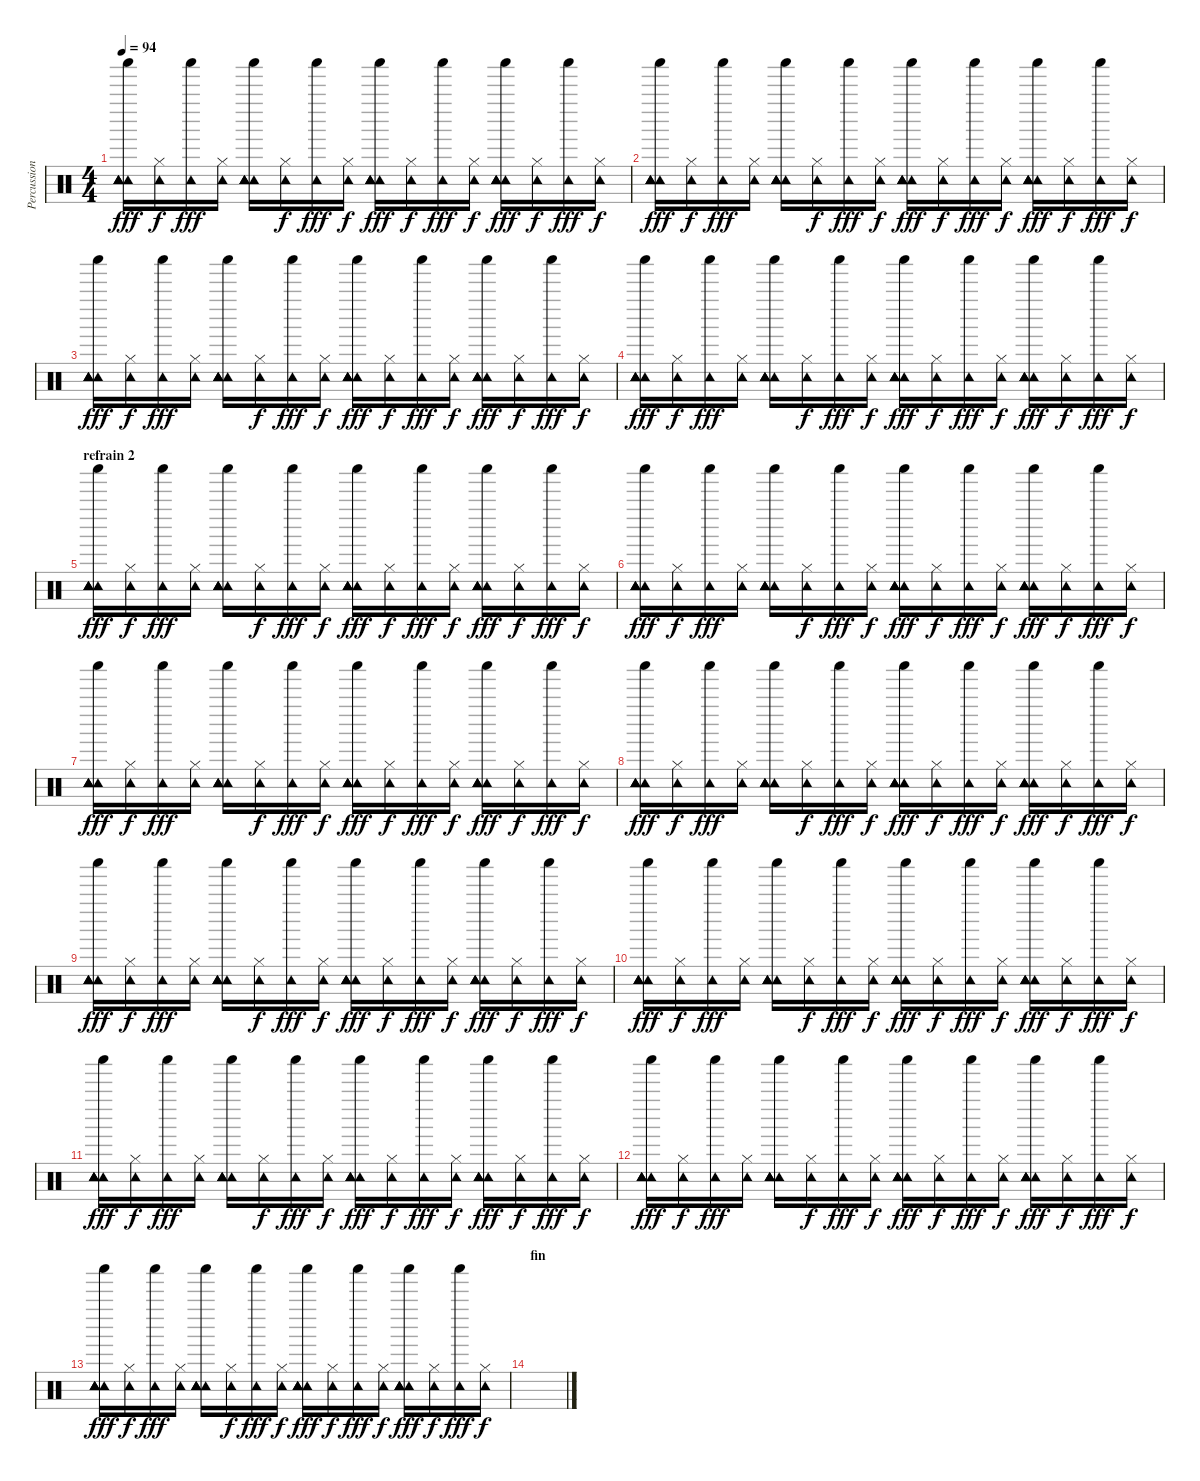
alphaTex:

\track ("Percussions" "Percussion") {instrument percussion}
\staff {score}
\articulation defaults
\ts (4 4)
\tempo 94
\clef neutral
\ks c
("Shaker (hit)" "Tambourine (hit)" "Tambourine (hit)" "Tambourine (hit)" "Tambourine (hit)" "Tambourine (hit)").16{dy fff} ("Hi-Hat (closed)" "Tambourine (hit)").16{dy f} ("Shaker (hit)" "Tambourine (hit)").16{dy fff} ("Hi-Hat (closed)" "Tambourine (hit)").16 ("Shaker (hit)" "Tambourine (hit)" "Tambourine (hit)" "Tambourine (hit)" "Tambourine (hit)" "Tambourine (hit)").16 ("Hi-Hat (closed)" "Tambourine (hit)").16{dy f} ("Shaker (hit)" "Tambourine (hit)").16{dy fff} ("Hi-Hat (closed)" "Tambourine (hit)").16{dy f} ("Shaker (hit)" "Tambourine (hit)" "Tambourine (hit)" "Tambourine (hit)" "Tambourine (hit)" "Tambourine (hit)").16{dy fff} ("Hi-Hat (closed)" "Tambourine (hit)").16{dy f} ("Shaker (hit)" "Tambourine (hit)").16{dy fff} ("Hi-Hat (closed)" "Tambourine (hit)").16{dy f} ("Shaker (hit)" "Tambourine (hit)" "Tambourine (hit)" "Tambourine (hit)" "Tambourine (hit)" "Tambourine (hit)").16{dy fff} ("Hi-Hat (closed)" "Tambourine (hit)").16{dy f} ("Shaker (hit)" "Tambourine (hit)").16{dy fff} ("Hi-Hat (closed)" "Tambourine (hit)").16{dy f} |
("Shaker (hit)" "Tambourine (hit)" "Tambourine (hit)" "Tambourine (hit)" "Tambourine (hit)" "Tambourine (hit)").16{dy fff} ("Hi-Hat (closed)" "Tambourine (hit)").16{dy f} ("Shaker (hit)" "Tambourine (hit)").16{dy fff} ("Hi-Hat (closed)" "Tambourine (hit)").16 ("Shaker (hit)" "Tambourine (hit)" "Tambourine (hit)" "Tambourine (hit)" "Tambourine (hit)" "Tambourine (hit)").16 ("Hi-Hat (closed)" "Tambourine (hit)").16{dy f} ("Shaker (hit)" "Tambourine (hit)").16{dy fff} ("Hi-Hat (closed)" "Tambourine (hit)").16{dy f} ("Shaker (hit)" "Tambourine (hit)" "Tambourine (hit)" "Tambourine (hit)" "Tambourine (hit)" "Tambourine (hit)").16{dy fff} ("Hi-Hat (closed)" "Tambourine (hit)").16{dy f} ("Shaker (hit)" "Tambourine (hit)").16{dy fff} ("Hi-Hat (closed)" "Tambourine (hit)").16{dy f} ("Shaker (hit)" "Tambourine (hit)" "Tambourine (hit)" "Tambourine (hit)" "Tambourine (hit)" "Tambourine (hit)").16{dy fff} ("Hi-Hat (closed)" "Tambourine (hit)").16{dy f} ("Shaker (hit)" "Tambourine (hit)").16{dy fff} ("Hi-Hat (closed)" "Tambourine (hit)").16{dy f} |
("Shaker (hit)" "Tambourine (hit)" "Tambourine (hit)" "Tambourine (hit)" "Tambourine (hit)" "Tambourine (hit)").16{dy fff} ("Hi-Hat (closed)" "Tambourine (hit)").16{dy f} ("Shaker (hit)" "Tambourine (hit)").16{dy fff} ("Hi-Hat (closed)" "Tambourine (hit)").16 ("Shaker (hit)" "Tambourine (hit)" "Tambourine (hit)" "Tambourine (hit)" "Tambourine (hit)" "Tambourine (hit)").16 ("Hi-Hat (closed)" "Tambourine (hit)").16{dy f} ("Shaker (hit)" "Tambourine (hit)").16{dy fff} ("Hi-Hat (closed)" "Tambourine (hit)").16{dy f} ("Shaker (hit)" "Tambourine (hit)" "Tambourine (hit)" "Tambourine (hit)" "Tambourine (hit)" "Tambourine (hit)").16{dy fff} ("Hi-Hat (closed)" "Tambourine (hit)").16{dy f} ("Shaker (hit)" "Tambourine (hit)").16{dy fff} ("Hi-Hat (closed)" "Tambourine (hit)").16{dy f} ("Shaker (hit)" "Tambourine (hit)" "Tambourine (hit)" "Tambourine (hit)" "Tambourine (hit)" "Tambourine (hit)").16{dy fff} ("Hi-Hat (closed)" "Tambourine (hit)").16{dy f} ("Shaker (hit)" "Tambourine (hit)").16{dy fff} ("Hi-Hat (closed)" "Tambourine (hit)").16{dy f} |
("Shaker (hit)" "Tambourine (hit)" "Tambourine (hit)" "Tambourine (hit)" "Tambourine (hit)" "Tambourine (hit)").16{dy fff} ("Hi-Hat (closed)" "Tambourine (hit)").16{dy f} ("Shaker (hit)" "Tambourine (hit)").16{dy fff} ("Hi-Hat (closed)" "Tambourine (hit)").16 ("Shaker (hit)" "Tambourine (hit)" "Tambourine (hit)" "Tambourine (hit)" "Tambourine (hit)" "Tambourine (hit)").16 ("Hi-Hat (closed)" "Tambourine (hit)").16{dy f} ("Shaker (hit)" "Tambourine (hit)").16{dy fff} ("Hi-Hat (closed)" "Tambourine (hit)").16{dy f} ("Shaker (hit)" "Tambourine (hit)" "Tambourine (hit)" "Tambourine (hit)" "Tambourine (hit)" "Tambourine (hit)").16{dy fff} ("Hi-Hat (closed)" "Tambourine (hit)").16{dy f} ("Shaker (hit)" "Tambourine (hit)").16{dy fff} ("Hi-Hat (closed)" "Tambourine (hit)").16{dy f} ("Shaker (hit)" "Tambourine (hit)" "Tambourine (hit)" "Tambourine (hit)" "Tambourine (hit)" "Tambourine (hit)").16{dy fff} ("Hi-Hat (closed)" "Tambourine (hit)").16{dy f} ("Shaker (hit)" "Tambourine (hit)").16{dy fff} ("Hi-Hat (closed)" "Tambourine (hit)").16{dy f} |
\section ("" "refrain 2")
("Shaker (hit)" "Tambourine (hit)" "Tambourine (hit)" "Tambourine (hit)" "Tambourine (hit)" "Tambourine (hit)").16{dy fff} ("Hi-Hat (closed)" "Tambourine (hit)").16{dy f} ("Shaker (hit)" "Tambourine (hit)").16{dy fff} ("Hi-Hat (closed)" "Tambourine (hit)").16 ("Shaker (hit)" "Tambourine (hit)" "Tambourine (hit)" "Tambourine (hit)" "Tambourine (hit)" "Tambourine (hit)").16 ("Hi-Hat (closed)" "Tambourine (hit)").16{dy f} ("Shaker (hit)" "Tambourine (hit)").16{dy fff} ("Hi-Hat (closed)" "Tambourine (hit)").16{dy f} ("Shaker (hit)" "Tambourine (hit)" "Tambourine (hit)" "Tambourine (hit)" "Tambourine (hit)" "Tambourine (hit)").16{dy fff} ("Hi-Hat (closed)" "Tambourine (hit)").16{dy f} ("Shaker (hit)" "Tambourine (hit)").16{dy fff} ("Hi-Hat (closed)" "Tambourine (hit)").16{dy f} ("Shaker (hit)" "Tambourine (hit)" "Tambourine (hit)" "Tambourine (hit)" "Tambourine (hit)" "Tambourine (hit)").16{dy fff} ("Hi-Hat (closed)" "Tambourine (hit)").16{dy f} ("Shaker (hit)" "Tambourine (hit)").16{dy fff} ("Hi-Hat (closed)" "Tambourine (hit)").16{dy f} |
("Shaker (hit)" "Tambourine (hit)" "Tambourine (hit)" "Tambourine (hit)" "Tambourine (hit)" "Tambourine (hit)").16{dy fff} ("Hi-Hat (closed)" "Tambourine (hit)").16{dy f} ("Shaker (hit)" "Tambourine (hit)").16{dy fff} ("Hi-Hat (closed)" "Tambourine (hit)").16 ("Shaker (hit)" "Tambourine (hit)" "Tambourine (hit)" "Tambourine (hit)" "Tambourine (hit)" "Tambourine (hit)").16 ("Hi-Hat (closed)" "Tambourine (hit)").16{dy f} ("Shaker (hit)" "Tambourine (hit)").16{dy fff} ("Hi-Hat (closed)" "Tambourine (hit)").16{dy f} ("Shaker (hit)" "Tambourine (hit)" "Tambourine (hit)" "Tambourine (hit)" "Tambourine (hit)" "Tambourine (hit)").16{dy fff} ("Hi-Hat (closed)" "Tambourine (hit)").16{dy f} ("Shaker (hit)" "Tambourine (hit)").16{dy fff} ("Hi-Hat (closed)" "Tambourine (hit)").16{dy f} ("Shaker (hit)" "Tambourine (hit)" "Tambourine (hit)" "Tambourine (hit)" "Tambourine (hit)" "Tambourine (hit)").16{dy fff} ("Hi-Hat (closed)" "Tambourine (hit)").16{dy f} ("Shaker (hit)" "Tambourine (hit)").16{dy fff} ("Hi-Hat (closed)" "Tambourine (hit)").16{dy f} |
("Shaker (hit)" "Tambourine (hit)" "Tambourine (hit)" "Tambourine (hit)" "Tambourine (hit)" "Tambourine (hit)").16{dy fff} ("Hi-Hat (closed)" "Tambourine (hit)").16{dy f} ("Shaker (hit)" "Tambourine (hit)").16{dy fff} ("Hi-Hat (closed)" "Tambourine (hit)").16 ("Shaker (hit)" "Tambourine (hit)" "Tambourine (hit)" "Tambourine (hit)" "Tambourine (hit)" "Tambourine (hit)").16 ("Hi-Hat (closed)" "Tambourine (hit)").16{dy f} ("Shaker (hit)" "Tambourine (hit)").16{dy fff} ("Hi-Hat (closed)" "Tambourine (hit)").16{dy f} ("Shaker (hit)" "Tambourine (hit)" "Tambourine (hit)" "Tambourine (hit)" "Tambourine (hit)" "Tambourine (hit)").16{dy fff} ("Hi-Hat (closed)" "Tambourine (hit)").16{dy f} ("Shaker (hit)" "Tambourine (hit)").16{dy fff} ("Hi-Hat (closed)" "Tambourine (hit)").16{dy f} ("Shaker (hit)" "Tambourine (hit)" "Tambourine (hit)" "Tambourine (hit)" "Tambourine (hit)" "Tambourine (hit)").16{dy fff} ("Hi-Hat (closed)" "Tambourine (hit)").16{dy f} ("Shaker (hit)" "Tambourine (hit)").16{dy fff} ("Hi-Hat (closed)" "Tambourine (hit)").16{dy f} |
("Shaker (hit)" "Tambourine (hit)" "Tambourine (hit)" "Tambourine (hit)" "Tambourine (hit)" "Tambourine (hit)").16{dy fff} ("Hi-Hat (closed)" "Tambourine (hit)").16{dy f} ("Shaker (hit)" "Tambourine (hit)").16{dy fff} ("Hi-Hat (closed)" "Tambourine (hit)").16 ("Shaker (hit)" "Tambourine (hit)" "Tambourine (hit)" "Tambourine (hit)" "Tambourine (hit)" "Tambourine (hit)").16 ("Hi-Hat (closed)" "Tambourine (hit)").16{dy f} ("Shaker (hit)" "Tambourine (hit)").16{dy fff} ("Hi-Hat (closed)" "Tambourine (hit)").16{dy f} ("Shaker (hit)" "Tambourine (hit)" "Tambourine (hit)" "Tambourine (hit)" "Tambourine (hit)" "Tambourine (hit)").16{dy fff} ("Hi-Hat (closed)" "Tambourine (hit)").16{dy f} ("Shaker (hit)" "Tambourine (hit)").16{dy fff} ("Hi-Hat (closed)" "Tambourine (hit)").16{dy f} ("Shaker (hit)" "Tambourine (hit)" "Tambourine (hit)" "Tambourine (hit)" "Tambourine (hit)" "Tambourine (hit)").16{dy fff} ("Hi-Hat (closed)" "Tambourine (hit)").16{dy f} ("Shaker (hit)" "Tambourine (hit)").16{dy fff} ("Hi-Hat (closed)" "Tambourine (hit)").16{dy f} |
("Shaker (hit)" "Tambourine (hit)" "Tambourine (hit)" "Tambourine (hit)" "Tambourine (hit)" "Tambourine (hit)").16{dy fff} ("Hi-Hat (closed)" "Tambourine (hit)").16{dy f} ("Shaker (hit)" "Tambourine (hit)").16{dy fff} ("Hi-Hat (closed)" "Tambourine (hit)").16 ("Shaker (hit)" "Tambourine (hit)" "Tambourine (hit)" "Tambourine (hit)" "Tambourine (hit)" "Tambourine (hit)").16 ("Hi-Hat (closed)" "Tambourine (hit)").16{dy f} ("Shaker (hit)" "Tambourine (hit)").16{dy fff} ("Hi-Hat (closed)" "Tambourine (hit)").16{dy f} ("Shaker (hit)" "Tambourine (hit)" "Tambourine (hit)" "Tambourine (hit)" "Tambourine (hit)" "Tambourine (hit)").16{dy fff} ("Hi-Hat (closed)" "Tambourine (hit)").16{dy f} ("Shaker (hit)" "Tambourine (hit)").16{dy fff} ("Hi-Hat (closed)" "Tambourine (hit)").16{dy f} ("Shaker (hit)" "Tambourine (hit)" "Tambourine (hit)" "Tambourine (hit)" "Tambourine (hit)" "Tambourine (hit)").16{dy fff} ("Hi-Hat (closed)" "Tambourine (hit)").16{dy f} ("Shaker (hit)" "Tambourine (hit)").16{dy fff} ("Hi-Hat (closed)" "Tambourine (hit)").16{dy f} |
("Shaker (hit)" "Tambourine (hit)" "Tambourine (hit)" "Tambourine (hit)" "Tambourine (hit)" "Tambourine (hit)").16{dy fff} ("Hi-Hat (closed)" "Tambourine (hit)").16{dy f} ("Shaker (hit)" "Tambourine (hit)").16{dy fff} ("Hi-Hat (closed)" "Tambourine (hit)").16 ("Shaker (hit)" "Tambourine (hit)" "Tambourine (hit)" "Tambourine (hit)" "Tambourine (hit)" "Tambourine (hit)").16 ("Hi-Hat (closed)" "Tambourine (hit)").16{dy f} ("Shaker (hit)" "Tambourine (hit)").16{dy fff} ("Hi-Hat (closed)" "Tambourine (hit)").16{dy f} ("Shaker (hit)" "Tambourine (hit)" "Tambourine (hit)" "Tambourine (hit)" "Tambourine (hit)" "Tambourine (hit)").16{dy fff} ("Hi-Hat (closed)" "Tambourine (hit)").16{dy f} ("Shaker (hit)" "Tambourine (hit)").16{dy fff} ("Hi-Hat (closed)" "Tambourine (hit)").16{dy f} ("Shaker (hit)" "Tambourine (hit)" "Tambourine (hit)" "Tambourine (hit)" "Tambourine (hit)" "Tambourine (hit)").16{dy fff} ("Hi-Hat (closed)" "Tambourine (hit)").16{dy f} ("Shaker (hit)" "Tambourine (hit)").16{dy fff} ("Hi-Hat (closed)" "Tambourine (hit)").16{dy f} |
("Shaker (hit)" "Tambourine (hit)" "Tambourine (hit)" "Tambourine (hit)" "Tambourine (hit)" "Tambourine (hit)").16{dy fff} ("Hi-Hat (closed)" "Tambourine (hit)").16{dy f} ("Shaker (hit)" "Tambourine (hit)").16{dy fff} ("Hi-Hat (closed)" "Tambourine (hit)").16 ("Shaker (hit)" "Tambourine (hit)" "Tambourine (hit)" "Tambourine (hit)" "Tambourine (hit)" "Tambourine (hit)").16 ("Hi-Hat (closed)" "Tambourine (hit)").16{dy f} ("Shaker (hit)" "Tambourine (hit)").16{dy fff} ("Hi-Hat (closed)" "Tambourine (hit)").16{dy f} ("Shaker (hit)" "Tambourine (hit)" "Tambourine (hit)" "Tambourine (hit)" "Tambourine (hit)" "Tambourine (hit)").16{dy fff} ("Hi-Hat (closed)" "Tambourine (hit)").16{dy f} ("Shaker (hit)" "Tambourine (hit)").16{dy fff} ("Hi-Hat (closed)" "Tambourine (hit)").16{dy f} ("Shaker (hit)" "Tambourine (hit)" "Tambourine (hit)" "Tambourine (hit)" "Tambourine (hit)" "Tambourine (hit)").16{dy fff} ("Hi-Hat (closed)" "Tambourine (hit)").16{dy f} ("Shaker (hit)" "Tambourine (hit)").16{dy fff} ("Hi-Hat (closed)" "Tambourine (hit)").16{dy f} |
("Shaker (hit)" "Tambourine (hit)" "Tambourine (hit)" "Tambourine (hit)" "Tambourine (hit)" "Tambourine (hit)").16{dy fff} ("Hi-Hat (closed)" "Tambourine (hit)").16{dy f} ("Shaker (hit)" "Tambourine (hit)").16{dy fff} ("Hi-Hat (closed)" "Tambourine (hit)").16 ("Shaker (hit)" "Tambourine (hit)" "Tambourine (hit)" "Tambourine (hit)" "Tambourine (hit)" "Tambourine (hit)").16 ("Hi-Hat (closed)" "Tambourine (hit)").16{dy f} ("Shaker (hit)" "Tambourine (hit)").16{dy fff} ("Hi-Hat (closed)" "Tambourine (hit)").16{dy f} ("Shaker (hit)" "Tambourine (hit)" "Tambourine (hit)" "Tambourine (hit)" "Tambourine (hit)" "Tambourine (hit)").16{dy fff} ("Hi-Hat (closed)" "Tambourine (hit)").16{dy f} ("Shaker (hit)" "Tambourine (hit)").16{dy fff} ("Hi-Hat (closed)" "Tambourine (hit)").16{dy f} ("Shaker (hit)" "Tambourine (hit)" "Tambourine (hit)" "Tambourine (hit)" "Tambourine (hit)" "Tambourine (hit)").16{dy fff} ("Hi-Hat (closed)" "Tambourine (hit)").16{dy f} ("Shaker (hit)" "Tambourine (hit)").16{dy fff} ("Hi-Hat (closed)" "Tambourine (hit)").16{dy f} |
("Shaker (hit)" "Tambourine (hit)" "Tambourine (hit)" "Tambourine (hit)" "Tambourine (hit)" "Tambourine (hit)").16{dy fff} ("Hi-Hat (closed)" "Tambourine (hit)").16{dy f} ("Shaker (hit)" "Tambourine (hit)").16{dy fff} ("Hi-Hat (closed)" "Tambourine (hit)").16 ("Shaker (hit)" "Tambourine (hit)" "Tambourine (hit)" "Tambourine (hit)" "Tambourine (hit)" "Tambourine (hit)").16 ("Hi-Hat (closed)" "Tambourine (hit)").16{dy f} ("Shaker (hit)" "Tambourine (hit)").16{dy fff} ("Hi-Hat (closed)" "Tambourine (hit)").16{dy f} ("Shaker (hit)" "Tambourine (hit)" "Tambourine (hit)" "Tambourine (hit)" "Tambourine (hit)" "Tambourine (hit)").16{dy fff} ("Hi-Hat (closed)" "Tambourine (hit)").16{dy f} ("Shaker (hit)" "Tambourine (hit)").16{dy fff} ("Hi-Hat (closed)" "Tambourine (hit)").16{dy f} ("Shaker (hit)" "Tambourine (hit)" "Tambourine (hit)" "Tambourine (hit)" "Tambourine (hit)" "Tambourine (hit)").16{dy fff} ("Hi-Hat (closed)" "Tambourine (hit)").16{dy f} ("Shaker (hit)" "Tambourine (hit)").16{dy fff} ("Hi-Hat (closed)" "Tambourine (hit)").16{dy f} |
\section ("" "fin")
